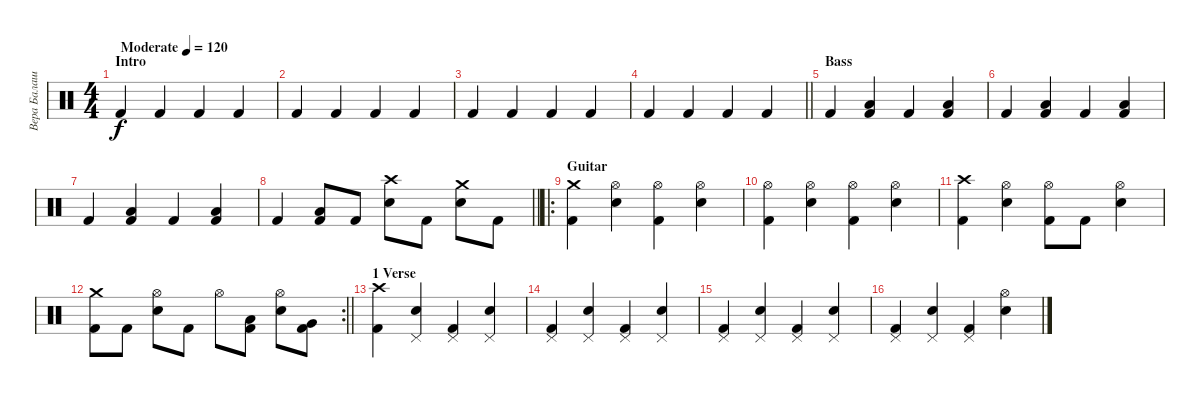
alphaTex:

\track ("Вера Балашевич" "Вера Балаш") {instrument percussion}
\staff {score}
\articulation defaults
\ts (4 4)
\section ("" "Intro")
\tempo (120 "Moderate")
\clef neutral
\ks c "Kick (hit) 2".4{dy f} "Kick (hit) 2".4 "Kick (hit) 2".4 "Kick (hit) 2".4
|
"Kick (hit) 2".4 "Kick (hit) 2".4 "Kick (hit) 2".4 "Kick (hit) 2".4 |
"Kick (hit) 2".4 "Kick (hit) 2".4 "Kick (hit) 2".4 "Kick (hit) 2".4 |
\barLineRight lightlight "Kick (hit) 2".4 "Kick (hit) 2".4 "Kick (hit) 2".4 "Kick (hit) 2".4
|
\section ("" "Bass")
"Kick (hit) 2".4 ("Low Tom (hit)" "Kick (hit) 2").4 "Kick (hit) 2".4 ("Low Tom (hit)" "Kick (hit) 2").4 |
"Kick (hit) 2".4 ("Low Tom (hit)" "Kick (hit) 2").4 "Kick (hit) 2".4 ("Low Tom (hit)" "Kick (hit) 2").4 |
"Kick (hit) 2".4 ("Low Tom (hit)" "Kick (hit) 2").4 "Kick (hit) 2".4 ("Low Tom (hit)" "Kick (hit) 2").4 |
\barLineRight lightlight "Kick (hit) 2".4
("Low Tom (hit)" "Kick (hit) 2").8 "Kick (hit) 2".8 ("Crash high (hit)" "Electric Snare (hit)").8 "Kick (hit) 2".8 ("Crash medium (hit)" "Electric Snare (hit)").8 "Kick (hit) 2".8 |
\ro
\section ("" "Guitar")
("Crash medium (hit)" "Kick (hit) 2").4 ("Hi-Hat (open)" "Electric Snare (hit)").4 ("Hi-Hat (open)" "Kick (hit) 2").4 ("Hi-Hat (open)" "Electric Snare (hit)").4 |
("Hi-Hat (open)" "Kick (hit) 2").4 ("Hi-Hat (open)" "Electric Snare (hit)").4 ("Hi-Hat (open)" "Kick (hit) 2").4 ("Hi-Hat (open)" "Electric Snare (hit)").4 |
("Crash high (hit)" "Kick (hit) 2").4 ("Hi-Hat (open)" "Electric Snare (hit)").4 ("Hi-Hat (open)" "Kick (hit) 2").8 "Kick (hit) 2".8 ("Hi-Hat (open)" "Electric Snare (hit)").4 |
\rc 2
\barLineRight lightlight
("Crash medium (hit)" "Kick (hit) 2").8 "Kick (hit) 2".8 ("Hi-Hat (open)" "Electric Snare (hit)").8 "Kick (hit) 2".8 "Hi-Hat (open)".8 ("Low Tom (hit)" "Kick (hit) 2").8 ("Hi-Hat (open)" "Electric Snare (hit)").8 ("Very Low Tom (hit)" "Kick (hit) 2").8 |
\section ("" "1 Verse")
("Crash high (hit)" "Kick (hit) 2").4 ("Pedal Hi-Hat (hit)" "Electric Snare (hit)").4 ("Pedal Hi-Hat (hit)" "Kick (hit) 2").4 ("Pedal Hi-Hat (hit)" "Electric Snare (hit)").4 |
("Pedal Hi-Hat (hit)" "Kick (hit) 2").4 ("Pedal Hi-Hat (hit)" "Electric Snare (hit)").4 ("Pedal Hi-Hat (hit)" "Kick (hit) 2").4 ("Pedal Hi-Hat (hit)" "Electric Snare (hit)").4 |
("Pedal Hi-Hat (hit)" "Kick (hit) 2").4 ("Pedal Hi-Hat (hit)" "Electric Snare (hit)").4 ("Pedal Hi-Hat (hit)" "Kick (hit) 2").4 ("Pedal Hi-Hat (hit)" "Electric Snare (hit)").4 |
("Pedal Hi-Hat (hit)" "Kick (hit) 2").4 ("Pedal Hi-Hat (hit)" "Electric Snare (hit)").4 ("Pedal Hi-Hat (hit)" "Kick (hit) 2").4 ("Hi-Hat (open)" "Electric Snare (hit)").4
